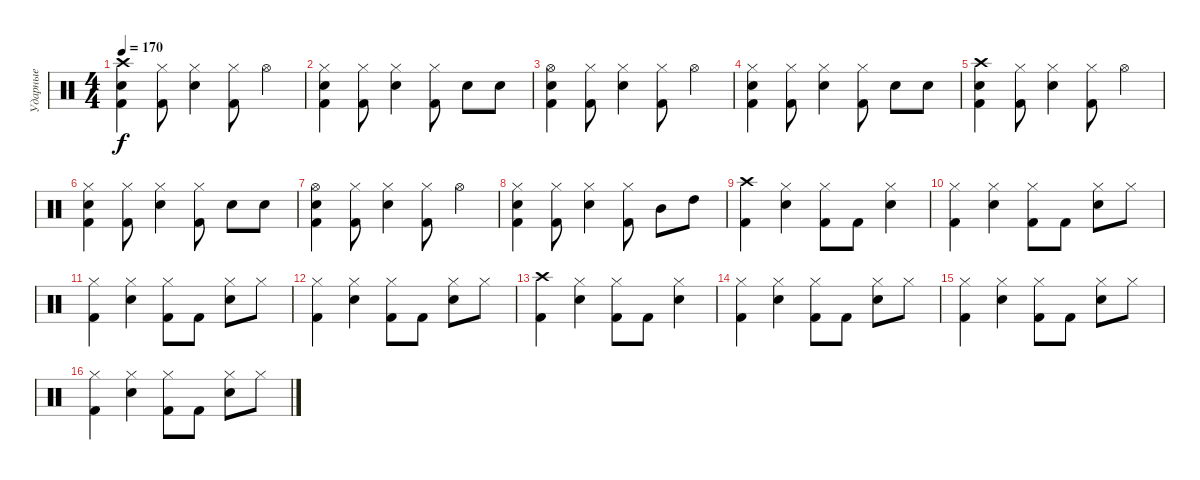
\track ("Ударные" "Ударные") {instrument percussion}
\staff {score}
\articulation defaults
\ts (4 4)
\tempo 170
\clef neutral
\ks c
("Crash high (hit)" "Snare (hit) 2" "Kick (hit) 2").4{dy f} ("Hi-Hat (closed)" "Kick (hit) 2").8 ("Hi-Hat (closed)" "Snare (hit) 2").4 ("Hi-Hat (closed)" "Kick (hit) 2").8 "Hi-Hat (open)".4 |
("Hi-Hat (closed)" "Snare (hit) 2" "Kick (hit) 2").4 ("Hi-Hat (closed)" "Kick (hit) 2").8 ("Hi-Hat (closed)" "Snare (hit) 2").4 ("Hi-Hat (closed)" "Kick (hit) 2").8 "Snare (hit) 2".8 "Snare (hit) 2".8 |
("Hi-Hat (open)" "Snare (hit) 2" "Kick (hit) 2").4 ("Hi-Hat (closed)" "Kick (hit) 2").8 ("Hi-Hat (closed)" "Snare (hit) 2").4 ("Hi-Hat (closed)" "Kick (hit) 2").8 "Hi-Hat (open)".4 |
("Hi-Hat (closed)" "Snare (hit) 2" "Kick (hit) 2").4 ("Hi-Hat (closed)" "Kick (hit) 2").8 ("Hi-Hat (closed)" "Snare (hit) 2").4 ("Hi-Hat (closed)" "Kick (hit) 2").8 "Snare (hit) 2".8 "Snare (hit) 2".8 |
("Crash high (hit)" "Snare (hit) 2" "Kick (hit) 2").4 ("Hi-Hat (closed)" "Kick (hit) 2").8 ("Hi-Hat (closed)" "Snare (hit) 2").4 ("Hi-Hat (closed)" "Kick (hit) 2").8 "Hi-Hat (open)".4 |
("Hi-Hat (closed)" "Snare (hit) 2" "Kick (hit) 2").4 ("Hi-Hat (closed)" "Kick (hit) 2").8 ("Hi-Hat (closed)" "Snare (hit) 2").4 ("Hi-Hat (closed)" "Kick (hit) 2").8 "Snare (hit) 2".8 "Snare (hit) 2".8 |
("Hi-Hat (open)" "Snare (hit) 2" "Kick (hit) 2").4 ("Hi-Hat (closed)" "Kick (hit) 2").8 ("Hi-Hat (closed)" "Snare (hit) 2").4 ("Hi-Hat (closed)" "Kick (hit) 2").8 "Hi-Hat (open)".4 |
("Hi-Hat (closed)" "Snare (hit) 2" "Kick (hit) 2").4 ("Hi-Hat (closed)" "Kick (hit) 2").8 ("Hi-Hat (closed)" "Snare (hit) 2").4 ("Hi-Hat (closed)" "Kick (hit) 2").8 "Mid Tom (hit)".8 "High Tom (hit)".8 |
("Crash high (hit)" "Kick (hit) 2").4 ("Hi-Hat (closed)" "Snare (hit) 2").4 ("Hi-Hat (closed)" "Kick (hit) 2").8 "Kick (hit) 2".8 ("Hi-Hat (closed)" "Snare (hit) 2").4 |
("Hi-Hat (closed)" "Kick (hit) 2").4 ("Hi-Hat (closed)" "Snare (hit) 2").4 ("Hi-Hat (closed)" "Kick (hit) 2").8 "Kick (hit) 2".8 ("Hi-Hat (closed)" "Snare (hit) 2").8 "Hi-Hat (closed)".8 |
("Hi-Hat (closed)" "Kick (hit) 2").4 ("Hi-Hat (closed)" "Snare (hit) 2").4 ("Hi-Hat (closed)" "Kick (hit) 2").8 "Kick (hit) 2".8 ("Hi-Hat (closed)" "Snare (hit) 2").8 "Hi-Hat (closed)".8 |
("Hi-Hat (closed)" "Kick (hit) 2").4 ("Hi-Hat (closed)" "Snare (hit) 2").4 ("Hi-Hat (closed)" "Kick (hit) 2").8 "Kick (hit) 2".8 ("Hi-Hat (closed)" "Snare (hit) 2").8 "Hi-Hat (closed)".8 |
("Crash high (hit)" "Kick (hit) 2").4 ("Hi-Hat (closed)" "Snare (hit) 2").4 ("Hi-Hat (closed)" "Kick (hit) 2").8 "Kick (hit) 2".8 ("Hi-Hat (closed)" "Snare (hit) 2").4 |
("Hi-Hat (closed)" "Kick (hit) 2").4 ("Hi-Hat (closed)" "Snare (hit) 2").4 ("Hi-Hat (closed)" "Kick (hit) 2").8 "Kick (hit) 2".8 ("Hi-Hat (closed)" "Snare (hit) 2").8 "Hi-Hat (closed)".8 |
("Hi-Hat (closed)" "Kick (hit) 2").4 ("Hi-Hat (closed)" "Snare (hit) 2").4 ("Hi-Hat (closed)" "Kick (hit) 2").8 "Kick (hit) 2".8 ("Hi-Hat (closed)" "Snare (hit) 2").8 "Hi-Hat (closed)".8 |
("Hi-Hat (closed)" "Kick (hit) 2").4 ("Hi-Hat (closed)" "Snare (hit) 2").4 ("Hi-Hat (closed)" "Kick (hit) 2").8 "Kick (hit) 2".8 ("Hi-Hat (closed)" "Snare (hit) 2").8 "Hi-Hat (closed)".8
